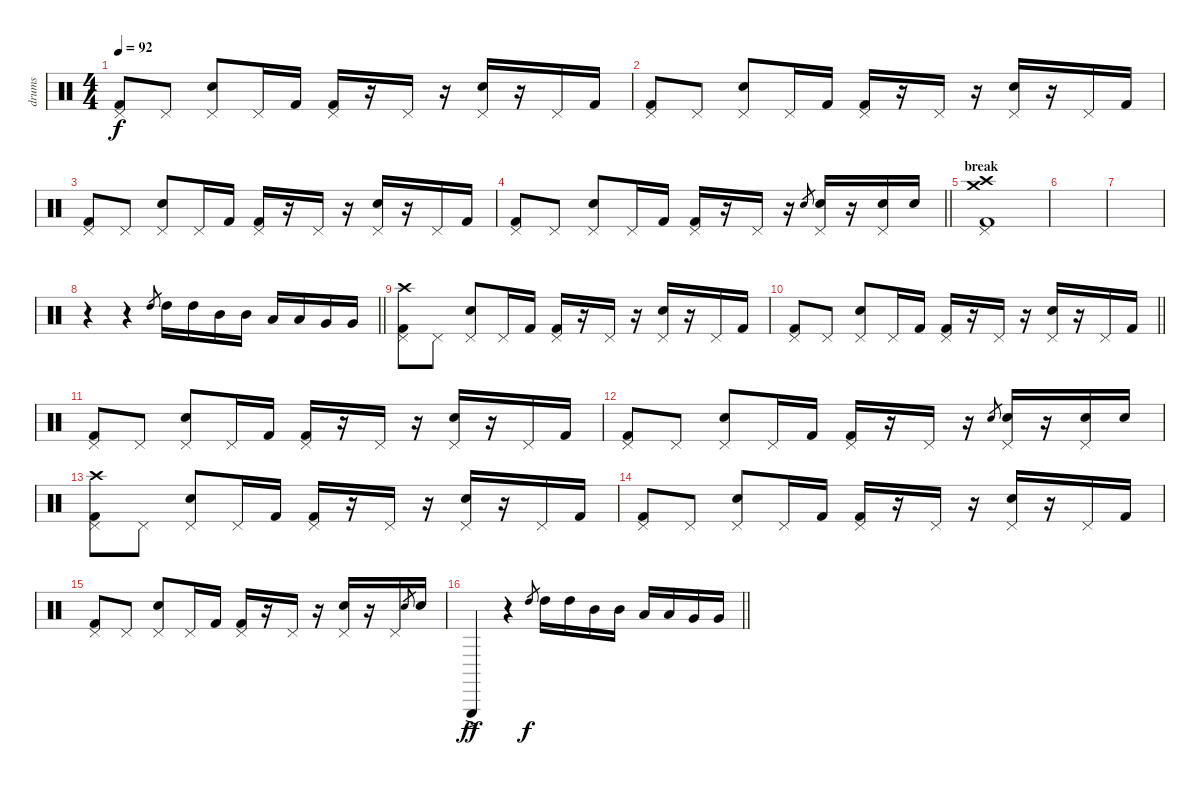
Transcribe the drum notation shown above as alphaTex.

\track ("drums" "drums") {instrument percussion}
\staff {score}
\articulation defaults
\ts (4 4)
\tempo 92
\clef neutral
\ks c
("Kick (hit) 2" "Pedal Hi-Hat (hit)").8{dy f} "Pedal Hi-Hat (hit)".8 ("Electric Snare (hit)" "Pedal Hi-Hat (hit)").8 "Pedal Hi-Hat (hit)".16 "Kick (hit) 2".16 ("Kick (hit) 2" "Pedal Hi-Hat (hit)").16 r.16 "Pedal Hi-Hat (hit)".16 r.16 ("Electric Snare (hit)" "Pedal Hi-Hat (hit)").16 r.16 "Pedal Hi-Hat (hit)".16 "Kick (hit) 2".16 |
("Kick (hit) 2" "Pedal Hi-Hat (hit)").8 "Pedal Hi-Hat (hit)".8 ("Electric Snare (hit)" "Pedal Hi-Hat (hit)").8 "Pedal Hi-Hat (hit)".16 "Kick (hit) 2".16 ("Kick (hit) 2" "Pedal Hi-Hat (hit)").16 r.16 "Pedal Hi-Hat (hit)".16 r.16 ("Electric Snare (hit)" "Pedal Hi-Hat (hit)").16 r.16 "Pedal Hi-Hat (hit)".16 "Kick (hit) 2".16 |
("Kick (hit) 2" "Pedal Hi-Hat (hit)").8 "Pedal Hi-Hat (hit)".8 ("Electric Snare (hit)" "Pedal Hi-Hat (hit)").8 "Pedal Hi-Hat (hit)".16 "Kick (hit) 2".16 ("Kick (hit) 2" "Pedal Hi-Hat (hit)").16 r.16 "Pedal Hi-Hat (hit)".16 r.16 ("Electric Snare (hit)" "Pedal Hi-Hat (hit)").16 r.16 "Pedal Hi-Hat (hit)".16 "Kick (hit) 2".16 |
\barLineRight lightlight
("Kick (hit) 2" "Pedal Hi-Hat (hit)").8 "Pedal Hi-Hat (hit)".8 ("Electric Snare (hit)" "Pedal Hi-Hat (hit)").8 "Pedal Hi-Hat (hit)".16 "Kick (hit) 2".16 ("Kick (hit) 2" "Pedal Hi-Hat (hit)").16 r.16 "Pedal Hi-Hat (hit)".16 r.16 "Electric Snare (hit)".8{gr} ("Electric Snare (hit)" "Pedal Hi-Hat (hit)").16 r.16 ("Electric Snare (hit)" "Pedal Hi-Hat (hit)").16 "Electric Snare (hit)".16 |
\section ("" "break")
("Kick (hit) 2" "Pedal Hi-Hat (hit)" "Crash high (hit)" "Crash medium (hit)").1 |
|
|
\barLineRight lightlight
r.4 r.4 "High Tom (hit)".8{gr} "High Tom (hit)".16 "High Tom (hit)".16 "Mid Tom (hit)".16 "Mid Tom (hit)".16 "Low Tom (hit)".16 "Low Tom (hit)".16 "Very Low Tom (hit)".16 "Very Low Tom (hit)".16 |
("Kick (hit) 2" "Pedal Hi-Hat (hit)" "Crash high (hit)").8 "Pedal Hi-Hat (hit)".8 ("Electric Snare (hit)" "Pedal Hi-Hat (hit)").8 "Pedal Hi-Hat (hit)".16 "Kick (hit) 2".16 ("Kick (hit) 2" "Pedal Hi-Hat (hit)").16 r.16 "Pedal Hi-Hat (hit)".16 r.16 ("Electric Snare (hit)" "Pedal Hi-Hat (hit)").16 r.16 "Pedal Hi-Hat (hit)".16 "Kick (hit) 2".16 |
\barLineRight lightlight
("Kick (hit) 2" "Pedal Hi-Hat (hit)").8 "Pedal Hi-Hat (hit)".8 ("Electric Snare (hit)" "Pedal Hi-Hat (hit)").8 "Pedal Hi-Hat (hit)".16 "Kick (hit) 2".16 ("Kick (hit) 2" "Pedal Hi-Hat (hit)").16 r.16 "Pedal Hi-Hat (hit)".16 r.16 ("Electric Snare (hit)" "Pedal Hi-Hat (hit)").16 r.16 "Pedal Hi-Hat (hit)".16 "Kick (hit) 2".16 |
("Kick (hit) 2" "Pedal Hi-Hat (hit)").8 "Pedal Hi-Hat (hit)".8 ("Electric Snare (hit)" "Pedal Hi-Hat (hit)").8 "Pedal Hi-Hat (hit)".16 "Kick (hit) 2".16 ("Kick (hit) 2" "Pedal Hi-Hat (hit)").16 r.16 "Pedal Hi-Hat (hit)".16 r.16 ("Electric Snare (hit)" "Pedal Hi-Hat (hit)").16 r.16 "Pedal Hi-Hat (hit)".16 "Kick (hit) 2".16 |
("Kick (hit) 2" "Pedal Hi-Hat (hit)").8 "Pedal Hi-Hat (hit)".8 ("Electric Snare (hit)" "Pedal Hi-Hat (hit)").8 "Pedal Hi-Hat (hit)".16 "Kick (hit) 2".16 ("Kick (hit) 2" "Pedal Hi-Hat (hit)").16 r.16 "Pedal Hi-Hat (hit)".16 r.16 "Electric Snare (hit)".8{gr} ("Electric Snare (hit)" "Pedal Hi-Hat (hit)").16 r.16 ("Electric Snare (hit)" "Pedal Hi-Hat (hit)").16 "Electric Snare (hit)".16 |
("Kick (hit) 2" "Pedal Hi-Hat (hit)" "Crash high (hit)").8 "Pedal Hi-Hat (hit)".8 ("Electric Snare (hit)" "Pedal Hi-Hat (hit)").8 "Pedal Hi-Hat (hit)".16 "Kick (hit) 2".16 ("Kick (hit) 2" "Pedal Hi-Hat (hit)").16 r.16 "Pedal Hi-Hat (hit)".16 r.16 ("Electric Snare (hit)" "Pedal Hi-Hat (hit)").16 r.16 "Pedal Hi-Hat (hit)".16 "Kick (hit) 2".16 |
("Kick (hit) 2" "Pedal Hi-Hat (hit)").8 "Pedal Hi-Hat (hit)".8 ("Electric Snare (hit)" "Pedal Hi-Hat (hit)").8 "Pedal Hi-Hat (hit)".16 "Kick (hit) 2".16 ("Kick (hit) 2" "Pedal Hi-Hat (hit)").16 r.16 "Pedal Hi-Hat (hit)".16 r.16 ("Electric Snare (hit)" "Pedal Hi-Hat (hit)").16 r.16 "Pedal Hi-Hat (hit)".16 "Kick (hit) 2".16 |
("Kick (hit) 2" "Pedal Hi-Hat (hit)").8 "Pedal Hi-Hat (hit)".8 ("Electric Snare (hit)" "Pedal Hi-Hat (hit)").8 "Pedal Hi-Hat (hit)".16 "Kick (hit) 2".16 ("Kick (hit) 2" "Pedal Hi-Hat (hit)").16 r.16 "Pedal Hi-Hat (hit)".16 r.16 ("Electric Snare (hit)" "Pedal Hi-Hat (hit)").16 r.16 "Pedal Hi-Hat (hit)".16 "Electric Snare (hit)".8{gr} "Electric Snare (hit)".16 |
\barLineRight lightlight "Triangle (hit)"{ac}.4{dy ff}
r.4 "High Tom (hit)".8{gr dy f} "High Tom (hit)".16 "High Tom (hit)".16 "Mid Tom (hit)".16 "Mid Tom (hit)".16 "Low Tom (hit)".16 "Low Tom (hit)".16 "Very Low Tom (hit)".16 "Very Low Tom (hit)".16
